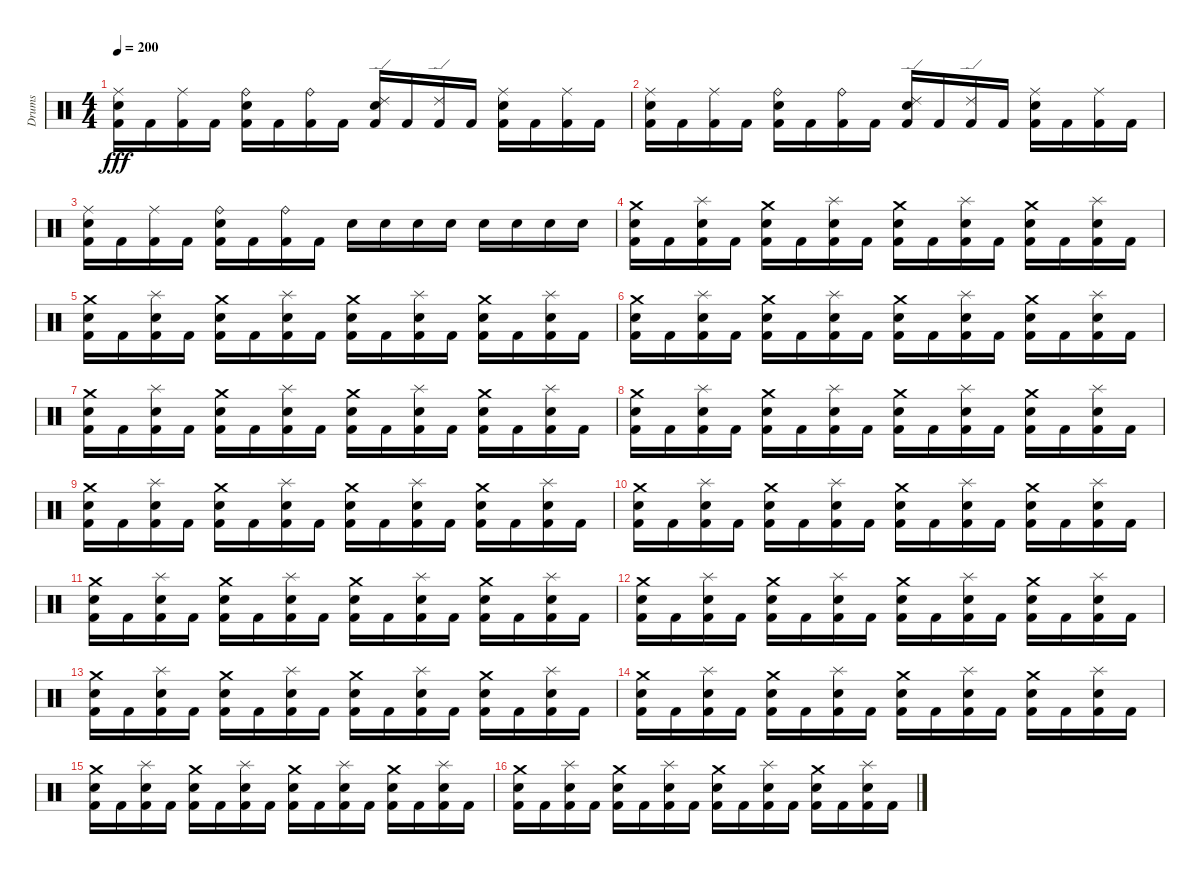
\track ("Drums" "Drums") {instrument percussion}
\staff {score}
\articulation defaults
\ts (4 4)
\tempo 200
\clef neutral
\ks c
("Electric Snare (hit)" "Ride (middle)" "Kick (hit) 2").16{dy fff} "Kick (hit) 2".16 ("Ride (middle)" "Kick (hit) 2").16 "Kick (hit) 2".16 ("Ride (bell)" "Snare (hit) 2" "Kick (hit) 2").16 "Kick (hit) 2".16 ("Ride (bell)" "Kick (hit) 2").16 "Kick (hit) 2".16 ("Ride (edge) 2" "Electric Snare (hit)" "Kick (hit) 2").16 "Kick (hit) 2".16 ("Ride (edge) 2" "Kick (hit) 2").16 "Kick (hit) 2".16 ("Ride (middle)" "Snare (hit) 2" "Kick (hit) 2").16 "Kick (hit) 2".16 ("Ride (middle)" "Kick (hit) 2").16 "Kick (hit) 2".16 |
("Electric Snare (hit)" "Ride (middle)" "Kick (hit) 2").16 "Kick (hit) 2".16 ("Ride (middle)" "Kick (hit) 2").16 "Kick (hit) 2".16 ("Ride (bell)" "Snare (hit) 2" "Kick (hit) 2").16 "Kick (hit) 2".16 ("Ride (bell)" "Kick (hit) 2").16 "Kick (hit) 2".16 ("Ride (edge) 2" "Electric Snare (hit)" "Kick (hit) 2").16 "Kick (hit) 2".16 ("Ride (edge) 2" "Kick (hit) 2").16 "Kick (hit) 2".16 ("Ride (middle)" "Snare (hit) 2" "Kick (hit) 2").16 "Kick (hit) 2".16 ("Ride (middle)" "Kick (hit) 2").16 "Kick (hit) 2".16 |
("Electric Snare (hit)" "Ride (middle)" "Kick (hit) 2").16 "Kick (hit) 2".16 ("Ride (middle)" "Kick (hit) 2").16 "Kick (hit) 2".16 ("Ride (bell)" "Snare (hit) 2" "Kick (hit) 2").16 "Kick (hit) 2".16 ("Ride (bell)" "Kick (hit) 2").16 "Kick (hit) 2".16 "Electric Snare (hit)".16 "Electric Snare (hit)".16 "Electric Snare (hit)".16 "Electric Snare (hit)".16 "Snare (hit) 2".16 "Snare (hit) 2".16 "Snare (hit) 2".16 "Snare (hit) 2".16 |
("Crash medium (hit)" "Electric Snare (hit)" "Kick (hit) 2").16 "Kick (hit) 2".16 ("Splash (hit)" "Snare (hit) 2" "Kick (hit) 2").16 "Kick (hit) 2".16 ("Crash medium (hit)" "Electric Snare (hit)" "Kick (hit) 2").16 "Kick (hit) 2".16 ("Splash (hit)" "Snare (hit) 2" "Kick (hit) 2").16 "Kick (hit) 2".16 ("Crash medium (hit)" "Electric Snare (hit)" "Kick (hit) 2").16 "Kick (hit) 2".16 ("Splash (hit)" "Snare (hit) 2" "Kick (hit) 2").16 "Kick (hit) 2".16 ("Crash medium (hit)" "Electric Snare (hit)" "Kick (hit) 2").16 "Kick (hit) 2".16 ("Splash (hit)" "Snare (hit) 2" "Kick (hit) 2").16 "Kick (hit) 2".16 |
("Crash medium (hit)" "Electric Snare (hit)" "Kick (hit) 2").16 "Kick (hit) 2".16 ("Splash (hit)" "Snare (hit) 2" "Kick (hit) 2").16 "Kick (hit) 2".16 ("Crash medium (hit)" "Electric Snare (hit)" "Kick (hit) 2").16 "Kick (hit) 2".16 ("Splash (hit)" "Snare (hit) 2" "Kick (hit) 2").16 "Kick (hit) 2".16 ("Crash medium (hit)" "Electric Snare (hit)" "Kick (hit) 2").16 "Kick (hit) 2".16 ("Splash (hit)" "Snare (hit) 2" "Kick (hit) 2").16 "Kick (hit) 2".16 ("Crash medium (hit)" "Electric Snare (hit)" "Kick (hit) 2").16 "Kick (hit) 2".16 ("Splash (hit)" "Snare (hit) 2" "Kick (hit) 2").16 "Kick (hit) 2".16 |
("Crash medium (hit)" "Electric Snare (hit)" "Kick (hit) 2").16 "Kick (hit) 2".16 ("Splash (hit)" "Snare (hit) 2" "Kick (hit) 2").16 "Kick (hit) 2".16 ("Crash medium (hit)" "Electric Snare (hit)" "Kick (hit) 2").16 "Kick (hit) 2".16 ("Splash (hit)" "Snare (hit) 2" "Kick (hit) 2").16 "Kick (hit) 2".16 ("Crash medium (hit)" "Electric Snare (hit)" "Kick (hit) 2").16 "Kick (hit) 2".16 ("Splash (hit)" "Snare (hit) 2" "Kick (hit) 2").16 "Kick (hit) 2".16 ("Crash medium (hit)" "Electric Snare (hit)" "Kick (hit) 2").16 "Kick (hit) 2".16 ("Splash (hit)" "Snare (hit) 2" "Kick (hit) 2").16 "Kick (hit) 2".16 |
("Crash medium (hit)" "Electric Snare (hit)" "Kick (hit) 2").16 "Kick (hit) 2".16 ("Splash (hit)" "Snare (hit) 2" "Kick (hit) 2").16 "Kick (hit) 2".16 ("Crash medium (hit)" "Electric Snare (hit)" "Kick (hit) 2").16 "Kick (hit) 2".16 ("Splash (hit)" "Snare (hit) 2" "Kick (hit) 2").16 "Kick (hit) 2".16 ("Crash medium (hit)" "Electric Snare (hit)" "Kick (hit) 2").16 "Kick (hit) 2".16 ("Splash (hit)" "Snare (hit) 2" "Kick (hit) 2").16 "Kick (hit) 2".16 ("Crash medium (hit)" "Electric Snare (hit)" "Kick (hit) 2").16 "Kick (hit) 2".16 ("Splash (hit)" "Snare (hit) 2" "Kick (hit) 2").16 "Kick (hit) 2".16 |
("Crash medium (hit)" "Electric Snare (hit)" "Kick (hit) 2").16 "Kick (hit) 2".16 ("Splash (hit)" "Snare (hit) 2" "Kick (hit) 2").16 "Kick (hit) 2".16 ("Crash medium (hit)" "Electric Snare (hit)" "Kick (hit) 2").16 "Kick (hit) 2".16 ("Splash (hit)" "Snare (hit) 2" "Kick (hit) 2").16 "Kick (hit) 2".16 ("Crash medium (hit)" "Electric Snare (hit)" "Kick (hit) 2").16 "Kick (hit) 2".16 ("Splash (hit)" "Snare (hit) 2" "Kick (hit) 2").16 "Kick (hit) 2".16 ("Crash medium (hit)" "Electric Snare (hit)" "Kick (hit) 2").16 "Kick (hit) 2".16 ("Splash (hit)" "Snare (hit) 2" "Kick (hit) 2").16 "Kick (hit) 2".16 |
("Crash medium (hit)" "Electric Snare (hit)" "Kick (hit) 2").16 "Kick (hit) 2".16 ("Splash (hit)" "Snare (hit) 2" "Kick (hit) 2").16 "Kick (hit) 2".16 ("Crash medium (hit)" "Electric Snare (hit)" "Kick (hit) 2").16 "Kick (hit) 2".16 ("Splash (hit)" "Snare (hit) 2" "Kick (hit) 2").16 "Kick (hit) 2".16 ("Crash medium (hit)" "Electric Snare (hit)" "Kick (hit) 2").16 "Kick (hit) 2".16 ("Splash (hit)" "Snare (hit) 2" "Kick (hit) 2").16 "Kick (hit) 2".16 ("Crash medium (hit)" "Electric Snare (hit)" "Kick (hit) 2").16 "Kick (hit) 2".16 ("Splash (hit)" "Snare (hit) 2" "Kick (hit) 2").16 "Kick (hit) 2".16 |
("Crash medium (hit)" "Electric Snare (hit)" "Kick (hit) 2").16 "Kick (hit) 2".16 ("Splash (hit)" "Snare (hit) 2" "Kick (hit) 2").16 "Kick (hit) 2".16 ("Crash medium (hit)" "Electric Snare (hit)" "Kick (hit) 2").16 "Kick (hit) 2".16 ("Splash (hit)" "Snare (hit) 2" "Kick (hit) 2").16 "Kick (hit) 2".16 ("Crash medium (hit)" "Electric Snare (hit)" "Kick (hit) 2").16 "Kick (hit) 2".16 ("Splash (hit)" "Snare (hit) 2" "Kick (hit) 2").16 "Kick (hit) 2".16 ("Crash medium (hit)" "Electric Snare (hit)" "Kick (hit) 2").16 "Kick (hit) 2".16 ("Splash (hit)" "Snare (hit) 2" "Kick (hit) 2").16 "Kick (hit) 2".16 |
("Crash medium (hit)" "Electric Snare (hit)" "Kick (hit) 2").16 "Kick (hit) 2".16 ("Splash (hit)" "Snare (hit) 2" "Kick (hit) 2").16 "Kick (hit) 2".16 ("Crash medium (hit)" "Electric Snare (hit)" "Kick (hit) 2").16 "Kick (hit) 2".16 ("Splash (hit)" "Snare (hit) 2" "Kick (hit) 2").16 "Kick (hit) 2".16 ("Crash medium (hit)" "Electric Snare (hit)" "Kick (hit) 2").16 "Kick (hit) 2".16 ("Splash (hit)" "Snare (hit) 2" "Kick (hit) 2").16 "Kick (hit) 2".16 ("Crash medium (hit)" "Electric Snare (hit)" "Kick (hit) 2").16 "Kick (hit) 2".16 ("Splash (hit)" "Snare (hit) 2" "Kick (hit) 2").16 "Kick (hit) 2".16 |
("Crash medium (hit)" "Electric Snare (hit)" "Kick (hit) 2").16 "Kick (hit) 2".16 ("Splash (hit)" "Snare (hit) 2" "Kick (hit) 2").16 "Kick (hit) 2".16 ("Crash medium (hit)" "Electric Snare (hit)" "Kick (hit) 2").16 "Kick (hit) 2".16 ("Splash (hit)" "Snare (hit) 2" "Kick (hit) 2").16 "Kick (hit) 2".16 ("Crash medium (hit)" "Electric Snare (hit)" "Kick (hit) 2").16 "Kick (hit) 2".16 ("Splash (hit)" "Snare (hit) 2" "Kick (hit) 2").16 "Kick (hit) 2".16 ("Crash medium (hit)" "Electric Snare (hit)" "Kick (hit) 2").16 "Kick (hit) 2".16 ("Splash (hit)" "Snare (hit) 2" "Kick (hit) 2").16 "Kick (hit) 2".16 |
("Crash medium (hit)" "Electric Snare (hit)" "Kick (hit) 2").16 "Kick (hit) 2".16 ("Splash (hit)" "Snare (hit) 2" "Kick (hit) 2").16 "Kick (hit) 2".16 ("Crash medium (hit)" "Electric Snare (hit)" "Kick (hit) 2").16 "Kick (hit) 2".16 ("Splash (hit)" "Snare (hit) 2" "Kick (hit) 2").16 "Kick (hit) 2".16 ("Crash medium (hit)" "Electric Snare (hit)" "Kick (hit) 2").16 "Kick (hit) 2".16 ("Splash (hit)" "Snare (hit) 2" "Kick (hit) 2").16 "Kick (hit) 2".16 ("Crash medium (hit)" "Electric Snare (hit)" "Kick (hit) 2").16 "Kick (hit) 2".16 ("Splash (hit)" "Snare (hit) 2" "Kick (hit) 2").16 "Kick (hit) 2".16 |
("Crash medium (hit)" "Electric Snare (hit)" "Kick (hit) 2").16 "Kick (hit) 2".16 ("Splash (hit)" "Snare (hit) 2" "Kick (hit) 2").16 "Kick (hit) 2".16 ("Crash medium (hit)" "Electric Snare (hit)" "Kick (hit) 2").16 "Kick (hit) 2".16 ("Splash (hit)" "Snare (hit) 2" "Kick (hit) 2").16 "Kick (hit) 2".16 ("Crash medium (hit)" "Electric Snare (hit)" "Kick (hit) 2").16 "Kick (hit) 2".16 ("Splash (hit)" "Snare (hit) 2" "Kick (hit) 2").16 "Kick (hit) 2".16 ("Crash medium (hit)" "Electric Snare (hit)" "Kick (hit) 2").16 "Kick (hit) 2".16 ("Splash (hit)" "Snare (hit) 2" "Kick (hit) 2").16 "Kick (hit) 2".16 |
("Crash medium (hit)" "Electric Snare (hit)" "Kick (hit) 2").16 "Kick (hit) 2".16 ("Splash (hit)" "Snare (hit) 2" "Kick (hit) 2").16 "Kick (hit) 2".16 ("Crash medium (hit)" "Electric Snare (hit)" "Kick (hit) 2").16 "Kick (hit) 2".16 ("Splash (hit)" "Snare (hit) 2" "Kick (hit) 2").16 "Kick (hit) 2".16 ("Crash medium (hit)" "Electric Snare (hit)" "Kick (hit) 2").16 "Kick (hit) 2".16 ("Splash (hit)" "Snare (hit) 2" "Kick (hit) 2").16 "Kick (hit) 2".16 ("Crash medium (hit)" "Electric Snare (hit)" "Kick (hit) 2").16 "Kick (hit) 2".16 ("Splash (hit)" "Snare (hit) 2" "Kick (hit) 2").16 "Kick (hit) 2".16 |
("Crash medium (hit)" "Electric Snare (hit)" "Kick (hit) 2").16 "Kick (hit) 2".16 ("Splash (hit)" "Snare (hit) 2" "Kick (hit) 2").16 "Kick (hit) 2".16 ("Crash medium (hit)" "Electric Snare (hit)" "Kick (hit) 2").16 "Kick (hit) 2".16 ("Splash (hit)" "Snare (hit) 2" "Kick (hit) 2").16 "Kick (hit) 2".16 ("Crash medium (hit)" "Electric Snare (hit)" "Kick (hit) 2").16 "Kick (hit) 2".16 ("Splash (hit)" "Snare (hit) 2" "Kick (hit) 2").16 "Kick (hit) 2".16 ("Crash medium (hit)" "Electric Snare (hit)" "Kick (hit) 2").16 "Kick (hit) 2".16 ("Splash (hit)" "Snare (hit) 2" "Kick (hit) 2").16 "Kick (hit) 2".16
